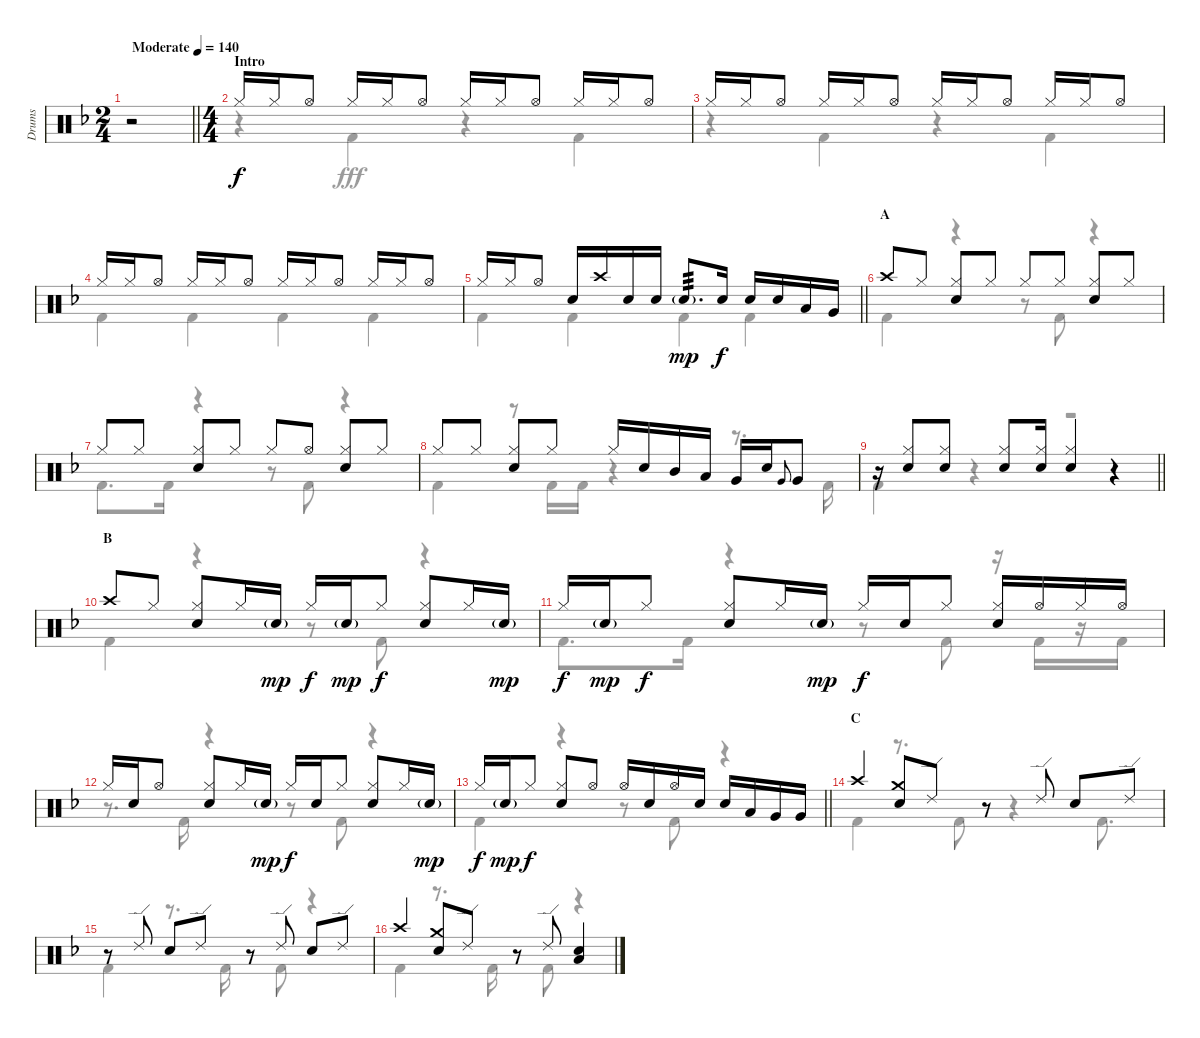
\track ("Drums" "Drums") {instrument percussion}
\staff {score}
\articulation defaults
\voice
\ts (2 4)
\tempo (140 "Moderate")
\clef neutral
\barLineRight lightlight
\ks f
r.2{dy f} |
\ts (4 4)
\section ("" "Intro")
"Hi-Hat (closed)".16 "Hi-Hat (closed)".16 "Hi-Hat (open)".8 "Hi-Hat (closed)".16 "Hi-Hat (closed)".16 "Hi-Hat (open)".8 "Hi-Hat (closed)".16 "Hi-Hat (closed)".16 "Hi-Hat (open)".8 "Hi-Hat (closed)".16 "Hi-Hat (closed)".16 "Hi-Hat (open)".8 |
"Hi-Hat (closed)".16 "Hi-Hat (closed)".16 "Hi-Hat (open)".8 "Hi-Hat (closed)".16 "Hi-Hat (closed)".16 "Hi-Hat (open)".8 "Hi-Hat (closed)".16 "Hi-Hat (closed)".16 "Hi-Hat (open)".8 "Hi-Hat (closed)".16 "Hi-Hat (closed)".16 "Hi-Hat (open)".8 |
"Hi-Hat (closed)".16 "Hi-Hat (closed)".16 "Hi-Hat (open)".8 "Hi-Hat (closed)".16 "Hi-Hat (closed)".16 "Hi-Hat (open)".8 "Hi-Hat (closed)".16 "Hi-Hat (closed)".16 "Hi-Hat (open)".8 "Hi-Hat (closed)".16 "Hi-Hat (closed)".16 "Hi-Hat (open)".8 |
\barLineRight lightlight "Hi-Hat (closed)".16 "Hi-Hat (closed)".16 "Hi-Hat (open)".8 "Snare (hit) 2".16 "Crash high (hit)".16 "Snare (hit) 2".16 "Snare (hit) 2".16 "Snare (hit) 2"{g}.8{d tp 3 dy mp} "Snare (hit) 2".16{dy f} "Snare (hit) 2".16 "Snare (hit) 2".16 "Low Tom (hit)".16 "Very Low Tom (hit)".16
|
\section ("" "A")
"Crash high (hit)".8 "Hi-Hat (closed)".8 ("Hi-Hat (closed)" "Snare (hit) 2").8 "Hi-Hat (closed)".8 "Hi-Hat (closed)".8 "Hi-Hat (closed)".8 ("Hi-Hat (closed)" "Snare (hit) 2").8 "Hi-Hat (closed)".8 |
"Hi-Hat (closed)".8 "Hi-Hat (closed)".8 ("Hi-Hat (closed)" "Snare (hit) 2").8 "Hi-Hat (closed)".8 "Hi-Hat (closed)".8 "Hi-Hat (open)".8 ("Hi-Hat (closed)" "Snare (hit) 2").8 "Hi-Hat (closed)".8 |
"Hi-Hat (closed)".8 "Hi-Hat (closed)".8 ("Hi-Hat (closed)" "Snare (hit) 2").8 "Hi-Hat (closed)".8 "Hi-Hat (closed)".16 "Snare (hit) 2".16 "Mid Tom (hit)".16 "Low Tom (hit)".16 "Very Low Tom (hit)".16 "Snare (hit) 2".16 "Very Low Tom (hit)".8{gr onbeat} "Very Low Tom (hit)".8 |
\barLineRight lightlight
r.16 ("Hi-Hat (closed)" "Snare (hit) 2").8 ("Hi-Hat (closed)" "Snare (hit) 2").8 ("Hi-Hat (closed)" "Snare (hit) 2").8 ("Hi-Hat (closed)" "Snare (hit) 2").16 ("Hi-Hat (closed)" "Snare (hit) 2").4 r.4 |
\section ("" "B")
"Crash high (hit)".8 "Hi-Hat (closed)".8 ("Hi-Hat (closed)" "Snare (hit) 2").8 "Hi-Hat (closed)".16 "Snare (hit) 2"{g}.16{dy mp} "Hi-Hat (closed)".16{dy f} "Snare (hit) 2"{g}.16{dy mp} "Hi-Hat (closed)".8{dy f} ("Hi-Hat (closed)" "Snare (hit) 2").8 "Hi-Hat (closed)".16 "Snare (hit) 2"{g}.16{dy mp} |
"Hi-Hat (closed)".16{dy f} "Snare (hit) 2"{g}.16{dy mp} "Hi-Hat (closed)".8{dy f} ("Hi-Hat (closed)" "Snare (hit) 2").8 "Hi-Hat (closed)".16 "Snare (hit) 2"{g}.16{dy mp} "Hi-Hat (closed)".16{dy f} "Snare (hit) 2".16 "Hi-Hat (closed)".8 ("Hi-Hat (closed)" "Snare (hit) 2").16 "Hi-Hat (open)".16 "Hi-Hat (closed)".16 "Hi-Hat (open)".16 |
"Hi-Hat (closed)".16 "Snare (hit) 2".16 "Hi-Hat (open)".8 ("Hi-Hat (closed)" "Snare (hit) 2").8 "Hi-Hat (closed)".16 "Snare (hit) 2"{g}.16{dy mp} "Hi-Hat (closed)".16{dy f} "Snare (hit) 2".16 "Hi-Hat (closed)".8 ("Hi-Hat (closed)" "Snare (hit) 2").8 "Hi-Hat (closed)".16 "Snare (hit) 2"{g}.16{dy mp} |
\barLineRight lightlight "Hi-Hat (closed)".16{dy f} "Snare (hit) 2"{g}.16{dy mp} "Hi-Hat (closed)".8{dy f}
("Hi-Hat (closed)" "Snare (hit) 2").8 "Hi-Hat (open)".8 "Hi-Hat (open)".16 "Snare (hit) 2".16 "Hi-Hat (open)".16 "Snare (hit) 2".16 "Snare (hit) 2".16 "Low Tom (hit)".16 "Very Low Tom (hit)".16 "Very Low Tom (hit)".16 |
\section ("" "C")
"Crash high (hit)".4 ("Crash medium (hit)" "Snare (hit) 2").8 "Ride (edge) 2".8 r.8 "Ride (edge) 2".8 "Snare (hit) 2".8 "Ride (edge) 2".8 |
r.8 "Ride (edge) 2".8 "Snare (hit) 2".8 "Ride (edge) 2".8 r.8 "Ride (edge) 2".8 "Snare (hit) 2".8 "Ride (edge) 2".8 |
"Crash high (hit)".4 ("Crash medium (hit)" "Snare (hit) 2").8 "Ride (edge) 2".8 r.8 "Ride (edge) 2".8 ("Snare (hit) 2" "Low Tom (hit)").4
\voice
\clef neutral
\ottava regular
\simile none
\barLineRight lightlight
\ks f
r.2{dy fff} |
r.4 "Kick (hit) 2".4 r.4 "Kick (hit) 2".4 |
r.4 "Kick (hit) 2".4 r.4 "Kick (hit) 2".4 |
"Kick (hit) 2".4 "Kick (hit) 2".4 "Kick (hit) 2".4 "Kick (hit) 2".4 |
\barLineRight lightlight "Kick (hit) 2".4 "Kick (hit) 2".4 "Kick (hit) 2".4 "Kick (hit) 2".4
|
"Kick (hit) 2".4 r.4 r.8 "Kick (hit) 2".8 r.4 |
"Kick (hit) 2".8{d} "Kick (hit) 2".16 r.4 r.8 "Kick (hit) 2".8 r.4 |
"Kick (hit) 2".4 r.8 "Kick (hit) 2".16 "Kick (hit) 2".16 r.4 r.8{d} "Kick (hit) 2".16 |
\barLineRight lightlight "Kick (hit) 2".4
r.4 r.2 |
"Kick (hit) 2".4 r.4 r.8 "Kick (hit) 2".8 r.4 |
"Kick (hit) 2".8{d} "Kick (hit) 2".16 r.4 r.8 "Kick (hit) 2".8 r.16 "Kick (hit) 2".16 r.16 "Kick (hit) 2".16 |
r.8{d} "Kick (hit) 2".16 r.4 r.8 "Kick (hit) 2".8 r.4 |
\barLineRight lightlight "Kick (hit) 2".4
r.4 r.8 "Kick (hit) 2".8 r.4 |
"Kick (hit) 2".4 r.8{d} "Kick (hit) 2".8 r.4 "Kick (hit) 2".8{d} |
"Kick (hit) 2".4 r.8{d} "Kick (hit) 2".16 r.8 "Kick (hit) 2".8 r.4 |
"Kick (hit) 2".4 r.8{d} "Kick (hit) 2".16 r.8 "Kick (hit) 2".8 r.4
